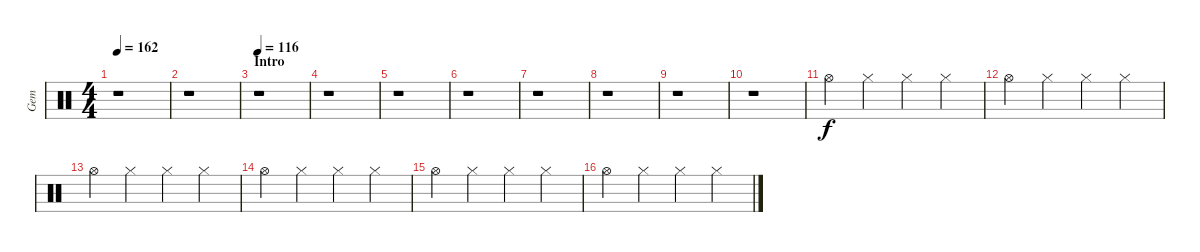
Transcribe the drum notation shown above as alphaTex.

\track ("Gem" "Gem") {instrument percussion}
\staff {score}
\articulation defaults
\ts (4 4)
\tempo 162
\tempo 116
\tempo 162
\clef neutral
\ks c
r.1{dy f} |
r.1 |
\section ("" "Intro")
\tempo 116
r.1 |
r.1 |
r.1 |
r.1 |
r.1 |
r.1 |
r.1 |
r.1 |
"Hi-Hat (open)".4 "Hi-Hat (closed)".4 "Hi-Hat (closed)".4 "Hi-Hat (closed)".4 |
"Hi-Hat (open)".4 "Hi-Hat (closed)".4 "Hi-Hat (closed)".4 "Hi-Hat (closed)".4 |
"Hi-Hat (open)".4 "Hi-Hat (closed)".4 "Hi-Hat (closed)".4 "Hi-Hat (closed)".4 |
"Hi-Hat (open)".4 "Hi-Hat (closed)".4 "Hi-Hat (closed)".4 "Hi-Hat (closed)".4 |
"Hi-Hat (open)".4 "Hi-Hat (closed)".4 "Hi-Hat (closed)".4 "Hi-Hat (closed)".4 |
"Hi-Hat (open)".4 "Hi-Hat (closed)".4 "Hi-Hat (closed)".4 "Hi-Hat (closed)".4
